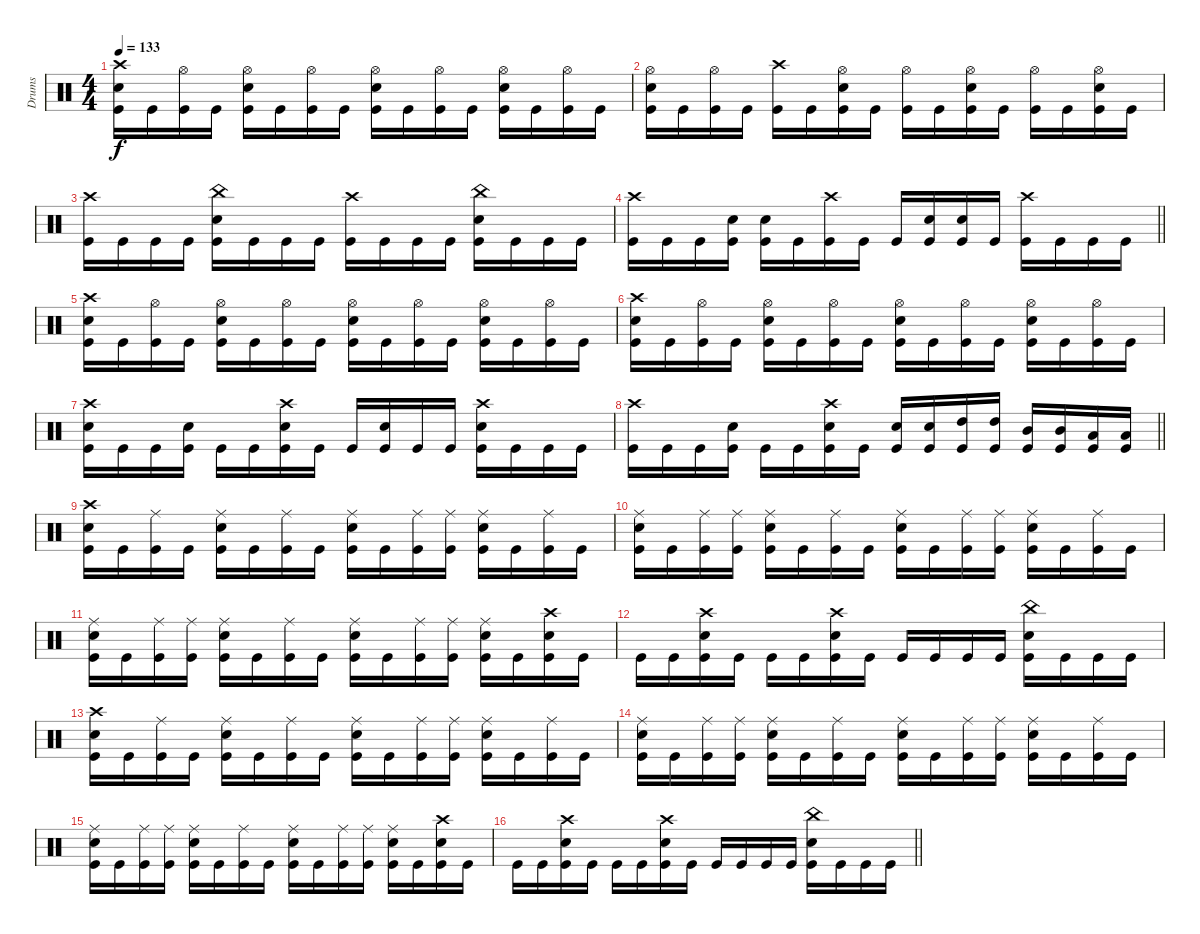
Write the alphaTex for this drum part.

\track ("Drums" "Drums") {instrument percussion}
\staff {score}
\articulation defaults
\ts (4 4)
\section ("" "")
\tempo 133
\clef neutral
\ks c
("Crash high (hit)" "Snare (hit) 2" "Kick (hit)").16{dy f} "Kick (hit)".16 ("Hi-Hat (open)" "Kick (hit)").16 "Kick (hit)".16 ("Hi-Hat (open)" "Snare (hit) 2" "Kick (hit)").16 "Kick (hit)".16 ("Hi-Hat (open)" "Kick (hit)").16 "Kick (hit)".16 ("Hi-Hat (open)" "Snare (hit) 2" "Kick (hit)").16 "Kick (hit)".16 ("Hi-Hat (open)" "Kick (hit)").16 "Kick (hit)".16 ("Hi-Hat (open)" "Snare (hit) 2" "Kick (hit)").16 "Kick (hit)".16 ("Hi-Hat (open)" "Kick (hit)").16 "Kick (hit)".16 |
("Hi-Hat (open)" "Snare (hit) 2" "Kick (hit)").16 "Kick (hit)".16 ("Hi-Hat (open)" "Kick (hit)").16 "Kick (hit)".16 ("Crash high (hit)" "Kick (hit)").16 "Kick (hit)".16 ("Hi-Hat (open)" "Snare (hit) 2" "Kick (hit)").16 "Kick (hit)".16 ("Hi-Hat (open)" "Kick (hit)").16 "Kick (hit)".16 ("Hi-Hat (open)" "Snare (hit) 2" "Kick (hit)").16 "Kick (hit)".16 ("Hi-Hat (open)" "Kick (hit)").16 "Kick (hit)".16 ("Hi-Hat (open)" "Snare (hit) 2" "Kick (hit)").16 "Kick (hit)".16 |
("Crash high (hit)" "Kick (hit)").16 "Kick (hit)".16 "Kick (hit)".16 "Kick (hit)".16 ("China (hit)" "Snare (hit) 2" "Kick (hit)").16 "Kick (hit)".16 "Kick (hit)".16 "Kick (hit)".16 ("Crash high (hit)" "Kick (hit)").16 "Kick (hit)".16 "Kick (hit)".16 "Kick (hit)".16 ("China (hit)" "Snare (hit) 2" "Kick (hit)").16 "Kick (hit)".16 "Kick (hit)".16 "Kick (hit)".16 |
\barLineRight lightlight
("Crash high (hit)" "Kick (hit)").16 "Kick (hit)".16 "Kick (hit)".16 ("Snare (hit) 2" "Kick (hit)").16 ("Snare (hit) 2" "Kick (hit)").16 "Kick (hit)".16 ("Crash high (hit)" "Kick (hit)").16 "Kick (hit)".16 "Kick (hit)".16 ("Snare (hit) 2" "Kick (hit)").16 ("Snare (hit) 2" "Kick (hit)").16 "Kick (hit)".16 ("Crash high (hit)" "Kick (hit)").16 "Kick (hit)".16 "Kick (hit)".16 "Kick (hit)".16 |
\section ("" "")
("Crash high (hit)" "Snare (hit) 2" "Kick (hit)").16 "Kick (hit)".16 ("Hi-Hat (open)" "Kick (hit)").16 "Kick (hit)".16 ("Hi-Hat (open)" "Snare (hit) 2" "Kick (hit)").16 "Kick (hit)".16 ("Hi-Hat (open)" "Kick (hit)").16 "Kick (hit)".16 ("Hi-Hat (open)" "Snare (hit) 2" "Kick (hit)").16 "Kick (hit)".16 ("Hi-Hat (open)" "Kick (hit)").16 "Kick (hit)".16 ("Hi-Hat (open)" "Snare (hit) 2" "Kick (hit)").16 "Kick (hit)".16 ("Hi-Hat (open)" "Kick (hit)").16 "Kick (hit)".16 |
("Crash high (hit)" "Snare (hit) 2" "Kick (hit)").16 "Kick (hit)".16 ("Hi-Hat (open)" "Kick (hit)").16 "Kick (hit)".16 ("Hi-Hat (open)" "Snare (hit) 2" "Kick (hit)").16 "Kick (hit)".16 ("Hi-Hat (open)" "Kick (hit)").16 "Kick (hit)".16 ("Hi-Hat (open)" "Snare (hit) 2" "Kick (hit)").16 "Kick (hit)".16 ("Hi-Hat (open)" "Kick (hit)").16 "Kick (hit)".16 ("Hi-Hat (open)" "Snare (hit) 2" "Kick (hit)").16 "Kick (hit)".16 ("Hi-Hat (open)" "Kick (hit)").16 "Kick (hit)".16 |
("Crash high (hit)" "Snare (hit) 2" "Kick (hit)").16 "Kick (hit)".16 "Kick (hit)".16 ("Snare (hit) 2" "Kick (hit)").16 "Kick (hit)".16 "Kick (hit)".16 ("Crash high (hit)" "Snare (hit) 2" "Kick (hit)").16 "Kick (hit)".16 "Kick (hit)".16 ("Snare (hit) 2" "Kick (hit)").16 "Kick (hit)".16 "Kick (hit)".16 ("Crash high (hit)" "Snare (hit) 2" "Kick (hit)").16 "Kick (hit)".16 "Kick (hit)".16 "Kick (hit)".16 |
\barLineRight lightlight
("Crash high (hit)" "Kick (hit)").16 "Kick (hit)".16 "Kick (hit)".16 ("Snare (hit) 2" "Kick (hit)").16 "Kick (hit)".16 "Kick (hit)".16 ("Crash high (hit)" "Snare (hit) 2" "Kick (hit)").16 "Kick (hit)".16 ("Snare (hit) 2" "Kick (hit)").16 ("Snare (hit) 2" "Kick (hit)").16 ("High Tom (hit)" "Kick (hit)").16 ("High Tom (hit)" "Kick (hit)").16 ("Mid Tom (hit)" "Kick (hit)").16 ("Mid Tom (hit)" "Kick (hit)").16 ("Low Tom (hit)" "Kick (hit)").16 ("Low Tom (hit)" "Kick (hit)").16 |
\section ("" "")
("Crash high (hit)" "Snare (hit) 2" "Kick (hit)").16 "Kick (hit)".16 ("Ride (middle)" "Kick (hit)").16 "Kick (hit)".16 ("Ride (middle)" "Snare (hit) 2" "Kick (hit)").16 "Kick (hit)".16 ("Ride (middle)" "Kick (hit)").16 "Kick (hit)".16 ("Ride (middle)" "Snare (hit) 2" "Kick (hit)").16 "Kick (hit)".16 ("Ride (middle)" "Kick (hit)").16 ("Ride (middle)" "Kick (hit)").16 ("Ride (middle)" "Snare (hit) 2" "Kick (hit)").16 "Kick (hit)".16 ("Ride (middle)" "Kick (hit)").16 "Kick (hit)".16 |
("Ride (middle)" "Snare (hit) 2" "Kick (hit)").16 "Kick (hit)".16 ("Ride (middle)" "Kick (hit)").16 ("Ride (middle)" "Kick (hit)").16 ("Ride (middle)" "Snare (hit) 2" "Kick (hit)").16 "Kick (hit)".16 ("Ride (middle)" "Kick (hit)").16 "Kick (hit)".16 ("Ride (middle)" "Snare (hit) 2" "Kick (hit)").16 "Kick (hit)".16 ("Ride (middle)" "Kick (hit)").16 ("Ride (middle)" "Kick (hit)").16 ("Ride (middle)" "Snare (hit) 2" "Kick (hit)").16 "Kick (hit)".16 ("Ride (middle)" "Kick (hit)").16 "Kick (hit)".16 |
("Ride (middle)" "Snare (hit) 2" "Kick (hit)").16 "Kick (hit)".16 ("Ride (middle)" "Kick (hit)").16 ("Ride (middle)" "Kick (hit)").16 ("Ride (middle)" "Snare (hit) 2" "Kick (hit)").16 "Kick (hit)".16 ("Ride (middle)" "Kick (hit)").16 "Kick (hit)".16 ("Ride (middle)" "Snare (hit) 2" "Kick (hit)").16 "Kick (hit)".16 ("Ride (middle)" "Kick (hit)").16 ("Ride (middle)" "Kick (hit)").16 ("Ride (middle)" "Snare (hit) 2" "Kick (hit)").16 "Kick (hit)".16 ("Crash high (hit)" "Snare (hit) 2" "Kick (hit)").16 "Kick (hit)".16 |
"Kick (hit)".16 "Kick (hit)".16 ("Crash high (hit)" "Snare (hit) 2" "Kick (hit)").16 "Kick (hit)".16 "Kick (hit)".16 "Kick (hit)".16 ("Crash high (hit)" "Snare (hit) 2" "Kick (hit)").16 "Kick (hit)".16 "Kick (hit)".16 "Kick (hit)".16 "Kick (hit)".16 "Kick (hit)".16 ("China (hit)" "Snare (hit) 2" "Kick (hit)").16 "Kick (hit)".16 "Kick (hit)".16 "Kick (hit)".16 |
("Crash high (hit)" "Snare (hit) 2" "Kick (hit)").16 "Kick (hit)".16 ("Ride (middle)" "Kick (hit)").16 "Kick (hit)".16 ("Ride (middle)" "Snare (hit) 2" "Kick (hit)").16 "Kick (hit)".16 ("Ride (middle)" "Kick (hit)").16 "Kick (hit)".16 ("Ride (middle)" "Snare (hit) 2" "Kick (hit)").16 "Kick (hit)".16 ("Ride (middle)" "Kick (hit)").16 ("Ride (middle)" "Kick (hit)").16 ("Ride (middle)" "Snare (hit) 2" "Kick (hit)").16 "Kick (hit)".16 ("Ride (middle)" "Kick (hit)").16 "Kick (hit)".16 |
("Ride (middle)" "Snare (hit) 2" "Kick (hit)").16 "Kick (hit)".16 ("Ride (middle)" "Kick (hit)").16 ("Ride (middle)" "Kick (hit)").16 ("Ride (middle)" "Snare (hit) 2" "Kick (hit)").16 "Kick (hit)".16 ("Ride (middle)" "Kick (hit)").16 "Kick (hit)".16 ("Ride (middle)" "Snare (hit) 2" "Kick (hit)").16 "Kick (hit)".16 ("Ride (middle)" "Kick (hit)").16 ("Ride (middle)" "Kick (hit)").16 ("Ride (middle)" "Snare (hit) 2" "Kick (hit)").16 "Kick (hit)".16 ("Ride (middle)" "Kick (hit)").16 "Kick (hit)".16 |
("Ride (middle)" "Snare (hit) 2" "Kick (hit)").16 "Kick (hit)".16 ("Ride (middle)" "Kick (hit)").16 ("Ride (middle)" "Kick (hit)").16 ("Ride (middle)" "Snare (hit) 2" "Kick (hit)").16 "Kick (hit)".16 ("Ride (middle)" "Kick (hit)").16 "Kick (hit)".16 ("Ride (middle)" "Snare (hit) 2" "Kick (hit)").16 "Kick (hit)".16 ("Ride (middle)" "Kick (hit)").16 ("Ride (middle)" "Kick (hit)").16 ("Ride (middle)" "Snare (hit) 2" "Kick (hit)").16 "Kick (hit)".16 ("Crash high (hit)" "Snare (hit) 2" "Kick (hit)").16 "Kick (hit)".16 |
\barLineRight lightlight "Kick (hit)".16 "Kick (hit)".16
("Crash high (hit)" "Snare (hit) 2" "Kick (hit)").16 "Kick (hit)".16 "Kick (hit)".16 "Kick (hit)".16 ("Crash high (hit)" "Snare (hit) 2" "Kick (hit)").16 "Kick (hit)".16 "Kick (hit)".16 "Kick (hit)".16 "Kick (hit)".16 "Kick (hit)".16 ("China (hit)" "Snare (hit) 2" "Kick (hit)").16 "Kick (hit)".16 "Kick (hit)".16 "Kick (hit)".16
